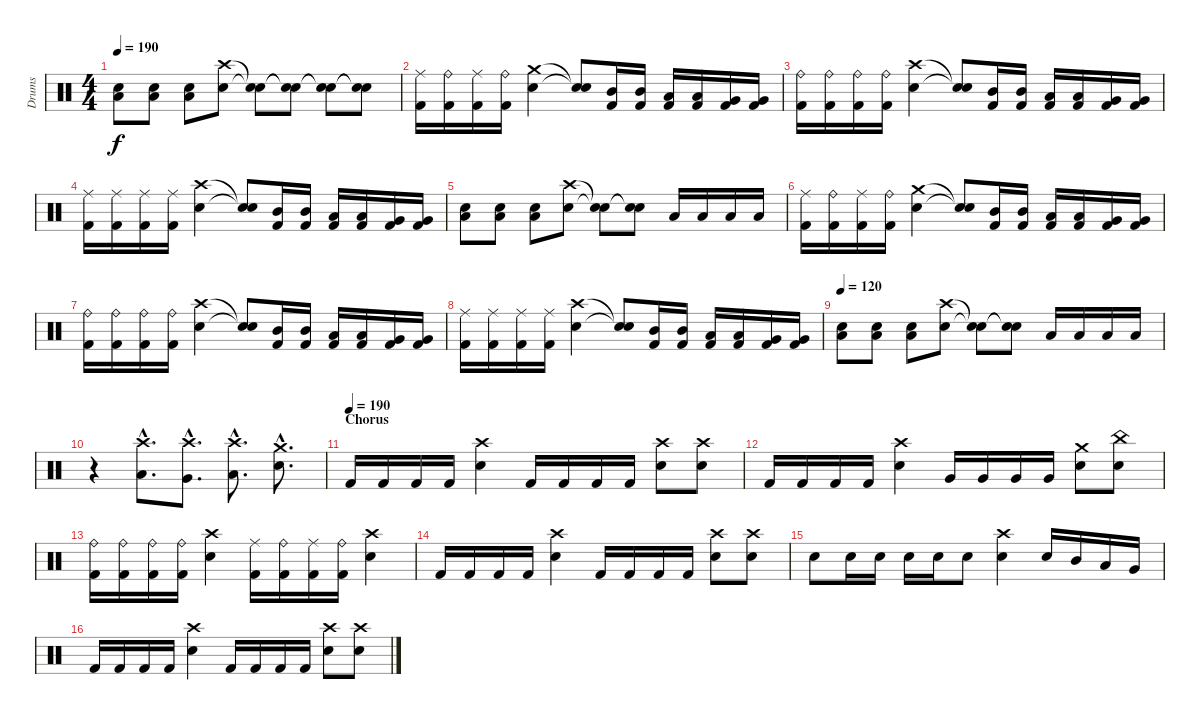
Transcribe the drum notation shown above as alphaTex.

\track ("Drums" "Drums") {instrument percussion}
\staff {score}
\articulation defaults
\ts (4 4)
\tempo 190
\clef neutral
\ks c
("Low Tom (hit)" "Electric Snare (hit)").8{dy f} ("Low Tom (hit)" "Electric Snare (hit)").8 ("Low Tom (hit)" "Electric Snare (hit)").8 ("Crash high (hit)" "Electric Snare (hit)").8 ("Snare (hit)"{t} "Snare (hit)"{t}).8 ("Snare (hit)"{t} "Snare (hit)"{t}).8 ("Snare (hit)"{t} "Snare (hit)"{t}).8 ("Snare (hit)"{t} "Snare (hit)"{t}).8 |
("Ride (middle)" "Kick (hit) 2").16 ("Ride (bell)" "Kick (hit) 2").16 ("Ride (middle)" "Kick (hit) 2").16 ("Ride (bell)" "Kick (hit) 2").16 ("Crash medium (hit)" "Electric Snare (hit)").4 ("Snare (hit)"{t} "Snare (hit)"{t}).8 ("Mid Tom (hit)" "Kick (hit) 2").16 ("Mid Tom (hit)" "Kick (hit) 2").16 ("Low Tom (hit)" "Kick (hit) 2").16 ("Low Tom (hit)" "Kick (hit) 2").16 ("Very Low Tom (hit)" "Kick (hit) 2").16 ("Very Low Tom (hit)" "Kick (hit) 2").16 |
("Ride (bell)" "Kick (hit) 2").16 ("Ride (bell)" "Kick (hit) 2").16 ("Ride (bell)" "Kick (hit) 2").16 ("Ride (bell)" "Kick (hit) 2").16 ("Crash high (hit)" "Electric Snare (hit)").4 ("Snare (hit)"{t} "Snare (hit)"{t}).8 ("Mid Tom (hit)" "Kick (hit) 2").16 ("Mid Tom (hit)" "Kick (hit) 2").16 ("Low Tom (hit)" "Kick (hit) 2").16 ("Low Tom (hit)" "Kick (hit) 2").16 ("Very Low Tom (hit)" "Kick (hit) 2").16 ("Very Low Tom (hit)" "Kick (hit) 2").16 |
("Ride (middle)" "Kick (hit) 2").16 ("Ride (middle)" "Kick (hit) 2").16 ("Ride (middle)" "Kick (hit) 2").16 ("Ride (middle)" "Kick (hit) 2").16 ("Crash high (hit)" "Electric Snare (hit)").4 ("Snare (hit)"{t} "Snare (hit)"{t}).8 ("Mid Tom (hit)" "Kick (hit) 2").16 ("Mid Tom (hit)" "Kick (hit) 2").16 ("Low Tom (hit)" "Kick (hit) 2").16 ("Low Tom (hit)" "Kick (hit) 2").16 ("Very Low Tom (hit)" "Kick (hit) 2").16 ("Very Low Tom (hit)" "Kick (hit) 2").16 |
("Low Tom (hit)" "Electric Snare (hit)").8 ("Low Tom (hit)" "Electric Snare (hit)").8 ("Low Tom (hit)" "Electric Snare (hit)").8 ("Crash high (hit)" "Electric Snare (hit)").8 ("Snare (hit)"{t} "Snare (hit)"{t}).8 ("Snare (hit)"{t} "Snare (hit)"{t}).8 "Low Tom (hit)".16 "Low Tom (hit)".16 "Low Tom (hit)".16 "Low Tom (hit)".16 |
("Ride (middle)" "Kick (hit) 2").16 ("Ride (bell)" "Kick (hit) 2").16 ("Ride (middle)" "Kick (hit) 2").16 ("Ride (bell)" "Kick (hit) 2").16 ("Crash medium (hit)" "Electric Snare (hit)").4 ("Snare (hit)"{t} "Snare (hit)"{t}).8 ("Mid Tom (hit)" "Kick (hit) 2").16 ("Mid Tom (hit)" "Kick (hit) 2").16 ("Low Tom (hit)" "Kick (hit) 2").16 ("Low Tom (hit)" "Kick (hit) 2").16 ("Very Low Tom (hit)" "Kick (hit) 2").16 ("Very Low Tom (hit)" "Kick (hit) 2").16 |
("Ride (bell)" "Kick (hit) 2").16 ("Ride (bell)" "Kick (hit) 2").16 ("Ride (bell)" "Kick (hit) 2").16 ("Ride (bell)" "Kick (hit) 2").16 ("Crash high (hit)" "Electric Snare (hit)").4 ("Snare (hit)"{t} "Snare (hit)"{t}).8 ("Mid Tom (hit)" "Kick (hit) 2").16 ("Mid Tom (hit)" "Kick (hit) 2").16 ("Low Tom (hit)" "Kick (hit) 2").16 ("Low Tom (hit)" "Kick (hit) 2").16 ("Very Low Tom (hit)" "Kick (hit) 2").16 ("Very Low Tom (hit)" "Kick (hit) 2").16 |
("Ride (middle)" "Kick (hit) 2").16 ("Ride (middle)" "Kick (hit) 2").16 ("Ride (middle)" "Kick (hit) 2").16 ("Ride (middle)" "Kick (hit) 2").16 ("Crash high (hit)" "Electric Snare (hit)").4 ("Snare (hit)"{t} "Snare (hit)"{t}).8 ("Mid Tom (hit)" "Kick (hit) 2").16 ("Mid Tom (hit)" "Kick (hit) 2").16 ("Low Tom (hit)" "Kick (hit) 2").16 ("Low Tom (hit)" "Kick (hit) 2").16 ("Very Low Tom (hit)" "Kick (hit) 2").16 ("Very Low Tom (hit)" "Kick (hit) 2").16 |
\tempo 120
("Low Tom (hit)" "Electric Snare (hit)").8 ("Low Tom (hit)" "Electric Snare (hit)").8 ("Low Tom (hit)" "Electric Snare (hit)").8 ("Crash high (hit)" "Electric Snare (hit)").8 ("Snare (hit)"{t} "Snare (hit)"{t}).8 ("Snare (hit)"{t} "Snare (hit)"{t}).8 "Low Tom (hit)".16 "Low Tom (hit)".16 "Low Tom (hit)".16 "Low Tom (hit)".16 |
r.4 ("Low Tom (hit)"{hac} "Crash high (hit)"{hac}).8{d} ("Very Low Tom (hit)"{hac} "Crash high (hit)"{hac}).8{d} ("Low Floor Tom (hit)"{hac} "Crash high (hit)"{hac}).8{d} ("Electric Snare (hit)"{hac} "Crash medium (hit)"{hac}).8{d} |
\section ("" "Chorus")
\tempo (190)
"Kick (hit) 2".16 "Kick (hit) 2".16 "Kick (hit) 2".16 "Kick (hit) 2".16 ("Electric Snare (hit)" "Crash high (hit)").4 "Kick (hit) 2".16 "Kick (hit) 2".16 "Kick (hit) 2".16 "Kick (hit) 2".16 ("Electric Snare (hit)" "Crash high (hit)").8 ("Electric Snare (hit)" "Crash high (hit)").8 |
"Kick (hit) 2".16 "Kick (hit) 2".16 "Kick (hit) 2".16 "Kick (hit) 2".16 ("Electric Snare (hit)" "Crash high (hit)").4 "Very Low Tom (hit)".16 "Very Low Tom (hit)".16 "Very Low Tom (hit)".16 "Very Low Tom (hit)".16 ("Electric Snare (hit)" "Crash medium (hit)").8 ("Electric Snare (hit)" "China (hit)").8 |
("Kick (hit) 2" "Ride (bell)").16 ("Kick (hit) 2" "Ride (bell)").16 ("Kick (hit) 2" "Ride (bell)").16 ("Kick (hit) 2" "Ride (bell)").16 ("Electric Snare (hit)" "Crash high (hit)").4 ("Kick (hit) 2" "Ride (middle)").16 ("Kick (hit) 2" "Ride (bell)").16 ("Kick (hit) 2" "Ride (middle)").16 ("Kick (hit) 2" "Ride (bell)").16 ("Electric Snare (hit)" "Crash high (hit)").4 |
"Kick (hit) 2".16 "Kick (hit) 2".16 "Kick (hit) 2".16 "Kick (hit) 2".16 ("Electric Snare (hit)" "Crash high (hit)").4 "Kick (hit) 2".16 "Kick (hit) 2".16 "Kick (hit) 2".16 "Kick (hit) 2".16 ("Electric Snare (hit)" "Crash high (hit)").8 ("Electric Snare (hit)" "Crash high (hit)").8 |
"Electric Snare (hit)".8 "Electric Snare (hit)".16 "Electric Snare (hit)".16 "Electric Snare (hit)".16 "Electric Snare (hit)".16 "Electric Snare (hit)".8 ("Electric Snare (hit)" "Crash high (hit)").4 "Electric Snare (hit)".16 "Mid Tom (hit)".16 "Low Tom (hit)".16 "Very Low Tom (hit)".16 |
"Kick (hit) 2".16 "Kick (hit) 2".16 "Kick (hit) 2".16 "Kick (hit) 2".16 ("Electric Snare (hit)" "Crash high (hit)").4 "Kick (hit) 2".16 "Kick (hit) 2".16 "Kick (hit) 2".16 "Kick (hit) 2".16 ("Electric Snare (hit)" "Crash high (hit)").8 ("Electric Snare (hit)" "Crash high (hit)").8
